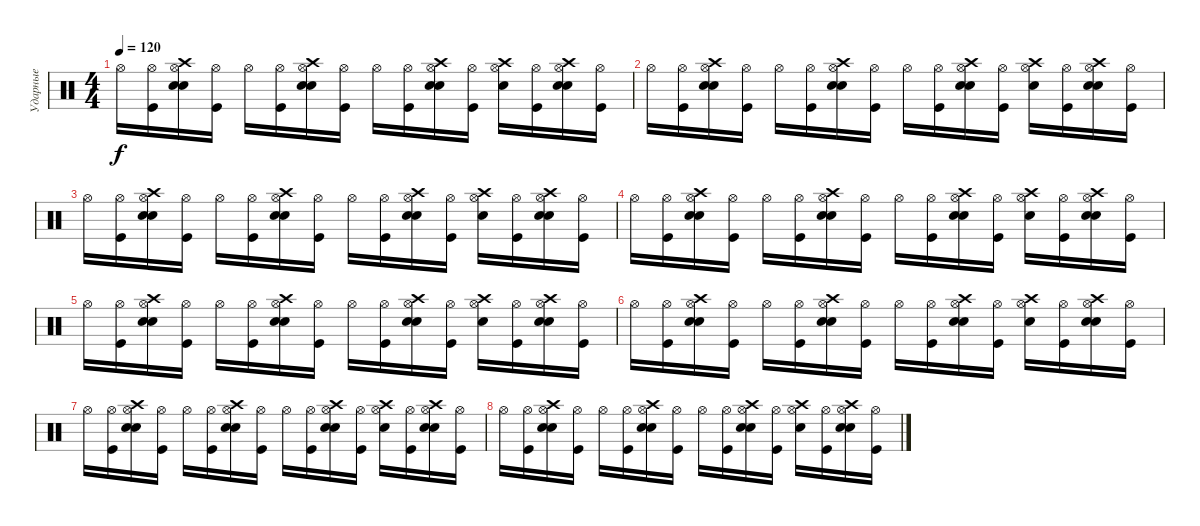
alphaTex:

\track ("Ударные" "Ударные") {instrument percussion}
\staff {score}
\articulation defaults
\ts (4 4)
\tempo 120
\clef neutral
\ks c "Hi-Hat (open)".16{dy f}
("Hi-Hat (open)" "Kick (hit)").16 ("Hi-Hat (open)" "Snare (hit) 2" "Crash high (hit)" "Electric Snare (hit)").16 ("Hi-Hat (open)" "Kick (hit)").16 "Hi-Hat (open)".16 ("Hi-Hat (open)" "Kick (hit)").16 ("Hi-Hat (open)" "Snare (hit) 2" "Crash high (hit)" "Electric Snare (hit)").16 ("Hi-Hat (open)" "Kick (hit)").16 "Hi-Hat (open)".16 ("Hi-Hat (open)" "Kick (hit)").16 ("Hi-Hat (open)" "Snare (hit) 2" "Crash high (hit)" "Electric Snare (hit)").16 ("Hi-Hat (open)" "Kick (hit)").16 ("Hi-Hat (open)" "Snare (hit) 2" "Crash high (hit)").16 ("Hi-Hat (open)" "Kick (hit)").16 ("Hi-Hat (open)" "Snare (hit) 2" "Crash high (hit)" "Electric Snare (hit)").16 ("Hi-Hat (open)" "Kick (hit)").16 |
"Hi-Hat (open)".16 ("Hi-Hat (open)" "Kick (hit)").16 ("Hi-Hat (open)" "Snare (hit) 2" "Crash high (hit)" "Electric Snare (hit)").16 ("Hi-Hat (open)" "Kick (hit)").16 "Hi-Hat (open)".16 ("Hi-Hat (open)" "Kick (hit)").16 ("Hi-Hat (open)" "Snare (hit) 2" "Crash high (hit)" "Electric Snare (hit)").16 ("Hi-Hat (open)" "Kick (hit)").16 "Hi-Hat (open)".16 ("Hi-Hat (open)" "Kick (hit)").16 ("Hi-Hat (open)" "Snare (hit) 2" "Crash high (hit)" "Electric Snare (hit)").16 ("Hi-Hat (open)" "Kick (hit)").16 ("Hi-Hat (open)" "Snare (hit) 2" "Crash high (hit)").16 ("Hi-Hat (open)" "Kick (hit)").16 ("Hi-Hat (open)" "Snare (hit) 2" "Crash high (hit)" "Electric Snare (hit)").16 ("Hi-Hat (open)" "Kick (hit)").16 |
"Hi-Hat (open)".16 ("Hi-Hat (open)" "Kick (hit)").16 ("Hi-Hat (open)" "Snare (hit) 2" "Crash high (hit)" "Electric Snare (hit)").16 ("Hi-Hat (open)" "Kick (hit)").16 "Hi-Hat (open)".16 ("Hi-Hat (open)" "Kick (hit)").16 ("Hi-Hat (open)" "Snare (hit) 2" "Crash high (hit)" "Electric Snare (hit)").16 ("Hi-Hat (open)" "Kick (hit)").16 "Hi-Hat (open)".16 ("Hi-Hat (open)" "Kick (hit)").16 ("Hi-Hat (open)" "Snare (hit) 2" "Crash high (hit)" "Electric Snare (hit)").16 ("Hi-Hat (open)" "Kick (hit)").16 ("Hi-Hat (open)" "Snare (hit) 2" "Crash high (hit)").16 ("Hi-Hat (open)" "Kick (hit)").16 ("Hi-Hat (open)" "Snare (hit) 2" "Crash high (hit)" "Electric Snare (hit)").16 ("Hi-Hat (open)" "Kick (hit)").16 |
"Hi-Hat (open)".16 ("Hi-Hat (open)" "Kick (hit)").16 ("Hi-Hat (open)" "Snare (hit) 2" "Crash high (hit)" "Electric Snare (hit)").16 ("Hi-Hat (open)" "Kick (hit)").16 "Hi-Hat (open)".16 ("Hi-Hat (open)" "Kick (hit)").16 ("Hi-Hat (open)" "Snare (hit) 2" "Crash high (hit)" "Electric Snare (hit)").16 ("Hi-Hat (open)" "Kick (hit)").16 "Hi-Hat (open)".16 ("Hi-Hat (open)" "Kick (hit)").16 ("Hi-Hat (open)" "Snare (hit) 2" "Crash high (hit)" "Electric Snare (hit)").16 ("Hi-Hat (open)" "Kick (hit)").16 ("Hi-Hat (open)" "Snare (hit) 2" "Crash high (hit)").16 ("Hi-Hat (open)" "Kick (hit)").16 ("Hi-Hat (open)" "Snare (hit) 2" "Crash high (hit)" "Electric Snare (hit)").16 ("Hi-Hat (open)" "Kick (hit)").16 |
"Hi-Hat (open)".16 ("Hi-Hat (open)" "Kick (hit)").16 ("Hi-Hat (open)" "Snare (hit) 2" "Crash high (hit)" "Electric Snare (hit)").16 ("Hi-Hat (open)" "Kick (hit)").16 "Hi-Hat (open)".16 ("Hi-Hat (open)" "Kick (hit)").16 ("Hi-Hat (open)" "Snare (hit) 2" "Crash high (hit)" "Electric Snare (hit)").16 ("Hi-Hat (open)" "Kick (hit)").16 "Hi-Hat (open)".16 ("Hi-Hat (open)" "Kick (hit)").16 ("Hi-Hat (open)" "Snare (hit) 2" "Crash high (hit)" "Electric Snare (hit)").16 ("Hi-Hat (open)" "Kick (hit)").16 ("Hi-Hat (open)" "Snare (hit) 2" "Crash high (hit)").16 ("Hi-Hat (open)" "Kick (hit)").16 ("Hi-Hat (open)" "Snare (hit) 2" "Crash high (hit)" "Electric Snare (hit)").16 ("Hi-Hat (open)" "Kick (hit)").16 |
"Hi-Hat (open)".16 ("Hi-Hat (open)" "Kick (hit)").16 ("Hi-Hat (open)" "Snare (hit) 2" "Crash high (hit)" "Electric Snare (hit)").16 ("Hi-Hat (open)" "Kick (hit)").16 "Hi-Hat (open)".16 ("Hi-Hat (open)" "Kick (hit)").16 ("Hi-Hat (open)" "Snare (hit) 2" "Crash high (hit)" "Electric Snare (hit)").16 ("Hi-Hat (open)" "Kick (hit)").16 "Hi-Hat (open)".16 ("Hi-Hat (open)" "Kick (hit)").16 ("Hi-Hat (open)" "Snare (hit) 2" "Crash high (hit)" "Electric Snare (hit)").16 ("Hi-Hat (open)" "Kick (hit)").16 ("Hi-Hat (open)" "Snare (hit) 2" "Crash high (hit)").16 ("Hi-Hat (open)" "Kick (hit)").16 ("Hi-Hat (open)" "Snare (hit) 2" "Crash high (hit)" "Electric Snare (hit)").16 ("Hi-Hat (open)" "Kick (hit)").16 |
"Hi-Hat (open)".16 ("Hi-Hat (open)" "Kick (hit)").16 ("Hi-Hat (open)" "Snare (hit) 2" "Crash high (hit)" "Electric Snare (hit)").16 ("Hi-Hat (open)" "Kick (hit)").16 "Hi-Hat (open)".16 ("Hi-Hat (open)" "Kick (hit)").16 ("Hi-Hat (open)" "Snare (hit) 2" "Crash high (hit)" "Electric Snare (hit)").16 ("Hi-Hat (open)" "Kick (hit)").16 "Hi-Hat (open)".16 ("Hi-Hat (open)" "Kick (hit)").16 ("Hi-Hat (open)" "Snare (hit) 2" "Crash high (hit)" "Electric Snare (hit)").16 ("Hi-Hat (open)" "Kick (hit)").16 ("Hi-Hat (open)" "Snare (hit) 2" "Crash high (hit)").16 ("Hi-Hat (open)" "Kick (hit)").16 ("Hi-Hat (open)" "Snare (hit) 2" "Crash high (hit)" "Electric Snare (hit)").16 ("Hi-Hat (open)" "Kick (hit)").16 |
"Hi-Hat (open)".16 ("Hi-Hat (open)" "Kick (hit)").16 ("Hi-Hat (open)" "Snare (hit) 2" "Crash high (hit)" "Electric Snare (hit)").16 ("Hi-Hat (open)" "Kick (hit)").16 "Hi-Hat (open)".16 ("Hi-Hat (open)" "Kick (hit)").16 ("Hi-Hat (open)" "Snare (hit) 2" "Crash high (hit)" "Electric Snare (hit)").16 ("Hi-Hat (open)" "Kick (hit)").16 "Hi-Hat (open)".16 ("Hi-Hat (open)" "Kick (hit)").16 ("Hi-Hat (open)" "Snare (hit) 2" "Crash high (hit)" "Electric Snare (hit)").16 ("Hi-Hat (open)" "Kick (hit)").16 ("Hi-Hat (open)" "Snare (hit) 2" "Crash high (hit)").16 ("Hi-Hat (open)" "Kick (hit)").16 ("Hi-Hat (open)" "Snare (hit) 2" "Crash high (hit)" "Electric Snare (hit)").16 ("Hi-Hat (open)" "Kick (hit)").16
